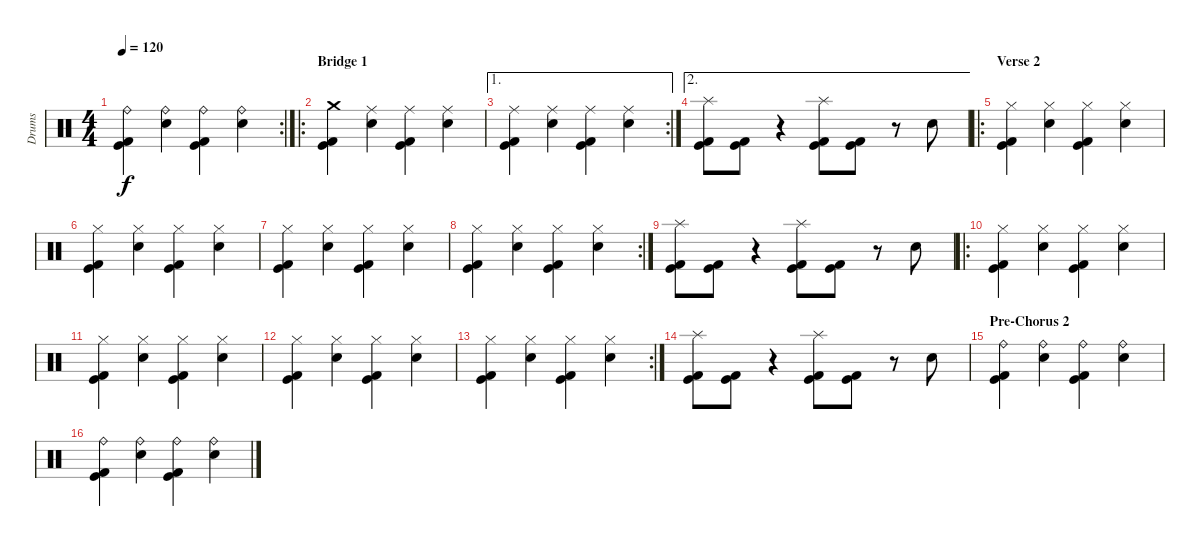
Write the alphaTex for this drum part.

\track ("Drums" "Drums") {instrument percussion}
\staff {score}
\articulation defaults
\rc 2
\ts (4 4)
\tempo 120
\clef neutral
\ks c
("Kick (hit)" "Kick (hit) 2" "Ride (bell)").4{dy f} ("Snare (hit) 2" "Ride (bell)").4 ("Kick (hit)" "Kick (hit) 2" "Ride (bell)").4 ("Snare (hit) 2" "Ride (bell)").4 |
\ro
\section ("" "Bridge 1")
("Kick (hit)" "Kick (hit) 2" "Crash medium (hit)").4 ("Snare (hit) 2" "Ride (middle)").4 ("Kick (hit)" "Kick (hit) 2" "Ride (middle)").4 ("Snare (hit) 2" "Ride (middle)").4 |
\ae 1
\rc 2
("Kick (hit)" "Kick (hit) 2" "Ride (middle)").4 ("Snare (hit) 2" "Ride (middle)").4 ("Kick (hit)" "Kick (hit) 2" "Ride (middle)").4 ("Snare (hit) 2" "Ride (middle)").4 |
\ae 2
("Kick (hit)" "Kick (hit) 2" "Splash (hit)").8 ("Kick (hit)" "Kick (hit) 2").8 r.4 ("Kick (hit)" "Kick (hit) 2" "Splash (hit)").8 ("Kick (hit)" "Kick (hit) 2").8 r.8 "Snare (hit) 2".8 |
\ro
\section ("" "Verse 2")
("Kick (hit)" "Kick (hit) 2" "Hi-Hat (closed)").4 ("Snare (hit) 2" "Hi-Hat (closed)").4 ("Kick (hit)" "Kick (hit) 2" "Hi-Hat (closed)").4 ("Snare (hit) 2" "Hi-Hat (closed)").4 |
("Kick (hit)" "Kick (hit) 2" "Hi-Hat (closed)").4 ("Snare (hit) 2" "Hi-Hat (closed)").4 ("Kick (hit)" "Kick (hit) 2" "Hi-Hat (closed)").4 ("Snare (hit) 2" "Hi-Hat (closed)").4 |
("Kick (hit)" "Kick (hit) 2" "Hi-Hat (closed)").4 ("Snare (hit) 2" "Hi-Hat (closed)").4 ("Kick (hit)" "Kick (hit) 2" "Hi-Hat (closed)").4 ("Snare (hit) 2" "Hi-Hat (closed)").4 |
\rc 2
("Kick (hit)" "Kick (hit) 2" "Hi-Hat (closed)").4 ("Snare (hit) 2" "Hi-Hat (closed)").4 ("Kick (hit)" "Kick (hit) 2" "Hi-Hat (closed)").4 ("Snare (hit) 2" "Hi-Hat (closed)").4 |
("Kick (hit)" "Kick (hit) 2" "Splash (hit)").8 ("Kick (hit)" "Kick (hit) 2").8 r.4 ("Kick (hit)" "Kick (hit) 2" "Splash (hit)").8 ("Kick (hit)" "Kick (hit) 2").8 r.8 "Snare (hit) 2".8 |
\ro
("Kick (hit)" "Kick (hit) 2" "Hi-Hat (closed)").4 ("Snare (hit) 2" "Hi-Hat (closed)").4 ("Kick (hit)" "Kick (hit) 2" "Hi-Hat (closed)").4 ("Snare (hit) 2" "Hi-Hat (closed)").4 |
("Kick (hit)" "Kick (hit) 2" "Hi-Hat (closed)").4 ("Snare (hit) 2" "Hi-Hat (closed)").4 ("Kick (hit)" "Kick (hit) 2" "Hi-Hat (closed)").4 ("Snare (hit) 2" "Hi-Hat (closed)").4 |
("Kick (hit)" "Kick (hit) 2" "Hi-Hat (closed)").4 ("Snare (hit) 2" "Hi-Hat (closed)").4 ("Kick (hit)" "Kick (hit) 2" "Hi-Hat (closed)").4 ("Snare (hit) 2" "Hi-Hat (closed)").4 |
\rc 2
("Kick (hit)" "Kick (hit) 2" "Hi-Hat (closed)").4 ("Snare (hit) 2" "Hi-Hat (closed)").4 ("Kick (hit)" "Kick (hit) 2" "Hi-Hat (closed)").4 ("Snare (hit) 2" "Hi-Hat (closed)").4 |
("Kick (hit)" "Kick (hit) 2" "Splash (hit)").8 ("Kick (hit)" "Kick (hit) 2").8 r.4 ("Kick (hit)" "Kick (hit) 2" "Splash (hit)").8 ("Kick (hit)" "Kick (hit) 2").8 r.8 "Snare (hit) 2".8 |
\section ("" "Pre-Chorus 2")
("Kick (hit)" "Kick (hit) 2" "Ride (bell)").4 ("Snare (hit) 2" "Ride (bell)").4 ("Kick (hit)" "Kick (hit) 2" "Ride (bell)").4 ("Snare (hit) 2" "Ride (bell)").4 |
("Kick (hit)" "Kick (hit) 2" "Ride (bell)").4 ("Snare (hit) 2" "Ride (bell)").4 ("Kick (hit)" "Kick (hit) 2" "Ride (bell)").4 ("Snare (hit) 2" "Ride (bell)").4
